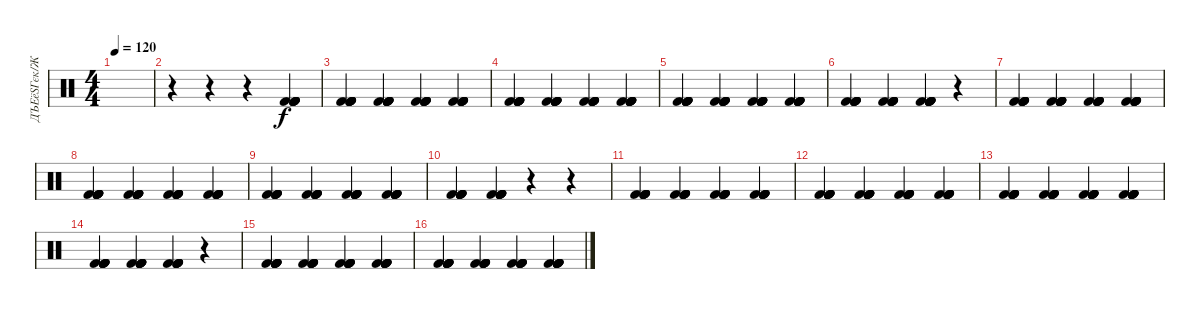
\track ("ДЪЕёЅГєк/ЖК" "ДЪЕёЅГєк/Ж") {instrument percussion}
\staff {score}
\articulation defaults
\ts (4 4)
\tempo 120
\clef neutral
\ks c
|
r.4 r.4 r.4 ("Kick (hit) 2" "Kick (hit) 2" "Kick (hit) 2" "Kick (hit) 2" "Kick (hit) 2" "Kick (hit) 2").4 |
("Kick (hit) 2" "Kick (hit) 2" "Kick (hit) 2" "Kick (hit) 2" "Kick (hit) 2" "Kick (hit) 2").4 ("Kick (hit) 2" "Kick (hit) 2" "Kick (hit) 2" "Kick (hit) 2" "Kick (hit) 2" "Kick (hit) 2").4 ("Kick (hit) 2" "Kick (hit) 2" "Kick (hit) 2" "Kick (hit) 2" "Kick (hit) 2" "Kick (hit) 2").4 ("Kick (hit) 2" "Kick (hit) 2" "Kick (hit) 2" "Kick (hit) 2" "Kick (hit) 2" "Kick (hit) 2").4 |
("Kick (hit) 2" "Kick (hit) 2" "Kick (hit) 2" "Kick (hit) 2" "Kick (hit) 2" "Kick (hit) 2").4 ("Kick (hit) 2" "Kick (hit) 2" "Kick (hit) 2" "Kick (hit) 2" "Kick (hit) 2" "Kick (hit) 2").4 ("Kick (hit) 2" "Kick (hit) 2" "Kick (hit) 2" "Kick (hit) 2" "Kick (hit) 2" "Kick (hit) 2").4 ("Kick (hit) 2" "Kick (hit) 2" "Kick (hit) 2" "Kick (hit) 2" "Kick (hit) 2" "Kick (hit) 2").4 |
("Kick (hit) 2" "Kick (hit) 2" "Kick (hit) 2" "Kick (hit) 2" "Kick (hit) 2" "Kick (hit) 2").4 ("Kick (hit) 2" "Kick (hit) 2" "Kick (hit) 2" "Kick (hit) 2" "Kick (hit) 2" "Kick (hit) 2").4 ("Kick (hit) 2" "Kick (hit) 2" "Kick (hit) 2" "Kick (hit) 2" "Kick (hit) 2" "Kick (hit) 2").4 ("Kick (hit) 2" "Kick (hit) 2" "Kick (hit) 2" "Kick (hit) 2" "Kick (hit) 2" "Kick (hit) 2").4 |
("Kick (hit) 2" "Kick (hit) 2" "Kick (hit) 2" "Kick (hit) 2" "Kick (hit) 2" "Kick (hit) 2").4 ("Kick (hit) 2" "Kick (hit) 2" "Kick (hit) 2" "Kick (hit) 2" "Kick (hit) 2" "Kick (hit) 2").4 ("Kick (hit) 2" "Kick (hit) 2" "Kick (hit) 2" "Kick (hit) 2" "Kick (hit) 2" "Kick (hit) 2").4 r.4 |
("Kick (hit) 2" "Kick (hit) 2" "Kick (hit) 2" "Kick (hit) 2" "Kick (hit) 2" "Kick (hit) 2").4 ("Kick (hit) 2" "Kick (hit) 2" "Kick (hit) 2" "Kick (hit) 2" "Kick (hit) 2" "Kick (hit) 2").4 ("Kick (hit) 2" "Kick (hit) 2" "Kick (hit) 2" "Kick (hit) 2" "Kick (hit) 2" "Kick (hit) 2").4 ("Kick (hit) 2" "Kick (hit) 2" "Kick (hit) 2" "Kick (hit) 2" "Kick (hit) 2" "Kick (hit) 2").4 |
("Kick (hit) 2" "Kick (hit) 2" "Kick (hit) 2" "Kick (hit) 2" "Kick (hit) 2" "Kick (hit) 2").4 ("Kick (hit) 2" "Kick (hit) 2" "Kick (hit) 2" "Kick (hit) 2" "Kick (hit) 2" "Kick (hit) 2").4 ("Kick (hit) 2" "Kick (hit) 2" "Kick (hit) 2" "Kick (hit) 2" "Kick (hit) 2" "Kick (hit) 2").4 ("Kick (hit) 2" "Kick (hit) 2" "Kick (hit) 2" "Kick (hit) 2" "Kick (hit) 2" "Kick (hit) 2").4 |
("Kick (hit) 2" "Kick (hit) 2" "Kick (hit) 2" "Kick (hit) 2" "Kick (hit) 2" "Kick (hit) 2").4 ("Kick (hit) 2" "Kick (hit) 2" "Kick (hit) 2" "Kick (hit) 2" "Kick (hit) 2" "Kick (hit) 2").4 ("Kick (hit) 2" "Kick (hit) 2" "Kick (hit) 2" "Kick (hit) 2" "Kick (hit) 2" "Kick (hit) 2").4 ("Kick (hit) 2" "Kick (hit) 2" "Kick (hit) 2" "Kick (hit) 2" "Kick (hit) 2" "Kick (hit) 2").4 |
("Kick (hit) 2" "Kick (hit) 2" "Kick (hit) 2" "Kick (hit) 2" "Kick (hit) 2" "Kick (hit) 2").4 ("Kick (hit) 2" "Kick (hit) 2" "Kick (hit) 2" "Kick (hit) 2" "Kick (hit) 2" "Kick (hit) 2").4 r.4 r.4 |
("Kick (hit) 2" "Kick (hit) 2" "Kick (hit) 2" "Kick (hit) 2" "Kick (hit) 2" "Kick (hit) 2").4 ("Kick (hit) 2" "Kick (hit) 2" "Kick (hit) 2" "Kick (hit) 2" "Kick (hit) 2" "Kick (hit) 2").4 ("Kick (hit) 2" "Kick (hit) 2" "Kick (hit) 2" "Kick (hit) 2" "Kick (hit) 2" "Kick (hit) 2").4 ("Kick (hit) 2" "Kick (hit) 2" "Kick (hit) 2" "Kick (hit) 2" "Kick (hit) 2" "Kick (hit) 2").4 |
("Kick (hit) 2" "Kick (hit) 2" "Kick (hit) 2" "Kick (hit) 2" "Kick (hit) 2" "Kick (hit) 2").4 ("Kick (hit) 2" "Kick (hit) 2" "Kick (hit) 2" "Kick (hit) 2" "Kick (hit) 2" "Kick (hit) 2").4 ("Kick (hit) 2" "Kick (hit) 2" "Kick (hit) 2" "Kick (hit) 2" "Kick (hit) 2" "Kick (hit) 2").4 ("Kick (hit) 2" "Kick (hit) 2" "Kick (hit) 2" "Kick (hit) 2" "Kick (hit) 2" "Kick (hit) 2").4 |
("Kick (hit) 2" "Kick (hit) 2" "Kick (hit) 2" "Kick (hit) 2" "Kick (hit) 2" "Kick (hit) 2").4 ("Kick (hit) 2" "Kick (hit) 2" "Kick (hit) 2" "Kick (hit) 2" "Kick (hit) 2" "Kick (hit) 2").4 ("Kick (hit) 2" "Kick (hit) 2" "Kick (hit) 2" "Kick (hit) 2" "Kick (hit) 2" "Kick (hit) 2").4 ("Kick (hit) 2" "Kick (hit) 2" "Kick (hit) 2" "Kick (hit) 2" "Kick (hit) 2" "Kick (hit) 2").4 |
("Kick (hit) 2" "Kick (hit) 2" "Kick (hit) 2" "Kick (hit) 2" "Kick (hit) 2" "Kick (hit) 2").4 ("Kick (hit) 2" "Kick (hit) 2" "Kick (hit) 2" "Kick (hit) 2" "Kick (hit) 2" "Kick (hit) 2").4 ("Kick (hit) 2" "Kick (hit) 2" "Kick (hit) 2" "Kick (hit) 2" "Kick (hit) 2" "Kick (hit) 2").4 r.4 |
("Kick (hit) 2" "Kick (hit) 2" "Kick (hit) 2" "Kick (hit) 2" "Kick (hit) 2" "Kick (hit) 2").4 ("Kick (hit) 2" "Kick (hit) 2" "Kick (hit) 2" "Kick (hit) 2" "Kick (hit) 2" "Kick (hit) 2").4 ("Kick (hit) 2" "Kick (hit) 2" "Kick (hit) 2" "Kick (hit) 2" "Kick (hit) 2" "Kick (hit) 2").4 ("Kick (hit) 2" "Kick (hit) 2" "Kick (hit) 2" "Kick (hit) 2" "Kick (hit) 2" "Kick (hit) 2").4 |
("Kick (hit) 2" "Kick (hit) 2" "Kick (hit) 2" "Kick (hit) 2" "Kick (hit) 2" "Kick (hit) 2").4 ("Kick (hit) 2" "Kick (hit) 2" "Kick (hit) 2" "Kick (hit) 2" "Kick (hit) 2" "Kick (hit) 2").4 ("Kick (hit) 2" "Kick (hit) 2" "Kick (hit) 2" "Kick (hit) 2" "Kick (hit) 2" "Kick (hit) 2").4 ("Kick (hit) 2" "Kick (hit) 2" "Kick (hit) 2" "Kick (hit) 2" "Kick (hit) 2" "Kick (hit) 2").4
